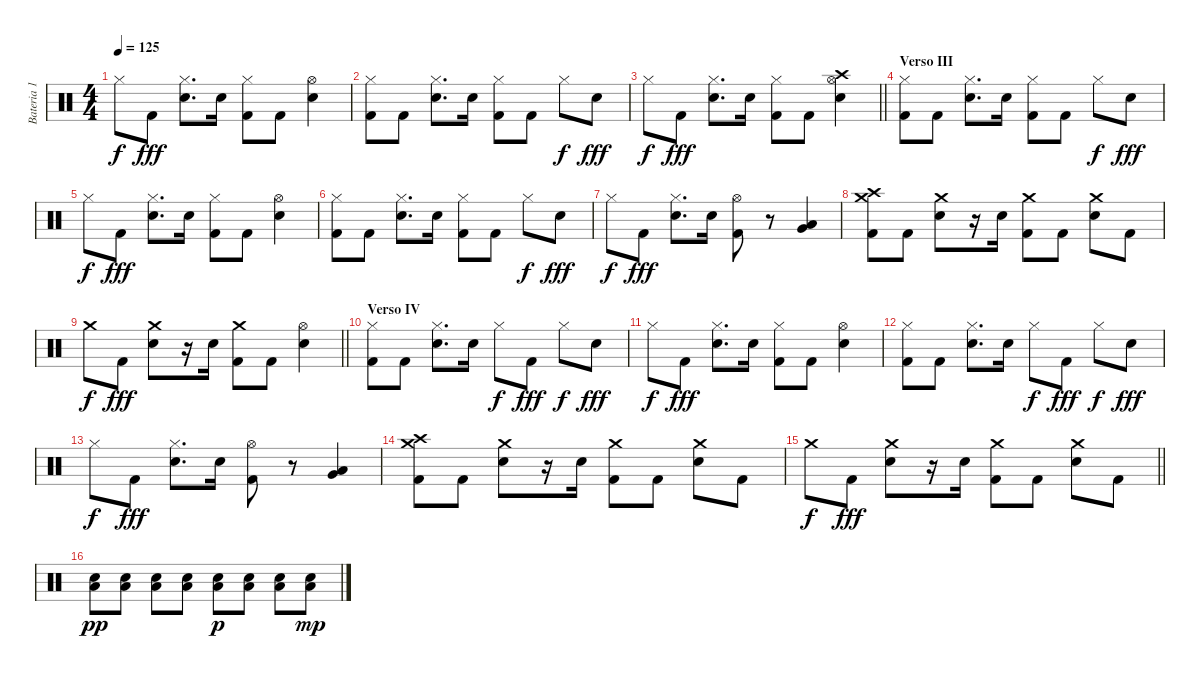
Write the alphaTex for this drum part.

\track ("Bateria 1" "Bateria 1") {instrument percussion}
\staff {score}
\articulation defaults
\ts (4 4)
\tempo 125
\clef neutral
\ks c "Hi-Hat (closed)".8{dy f} "Kick (hit) 2".8{dy fff}
("Hi-Hat (closed)" "Electric Snare (hit)").8{d} "Electric Snare (hit)".16 ("Hi-Hat (closed)" "Kick (hit) 2").8 "Kick (hit) 2".8 ("Hi-Hat (open)" "Electric Snare (hit)").4 |
("Hi-Hat (closed)" "Kick (hit) 2").8 "Kick (hit) 2".8 ("Hi-Hat (closed)" "Electric Snare (hit)").8{d} "Electric Snare (hit)".16 ("Hi-Hat (closed)" "Kick (hit) 2").8 "Kick (hit) 2".8 "Hi-Hat (closed)".8{dy f} "Electric Snare (hit)".8{dy fff} |
\barLineRight lightlight "Hi-Hat (closed)".8{dy f} "Kick (hit) 2".8{dy fff}
("Hi-Hat (closed)" "Electric Snare (hit)").8{d} "Electric Snare (hit)".16 ("Hi-Hat (closed)" "Kick (hit) 2").8 "Kick (hit) 2".8 ("Crash high (hit)" "Hi-Hat (open)" "Electric Snare (hit)").4 |
\section ("" "Verso III")
("Hi-Hat (closed)" "Kick (hit) 2").8 "Kick (hit) 2".8 ("Hi-Hat (closed)" "Electric Snare (hit)").8{d} "Electric Snare (hit)".16 ("Hi-Hat (closed)" "Kick (hit) 2").8 "Kick (hit) 2".8 "Hi-Hat (closed)".8{dy f} "Electric Snare (hit)".8{dy fff} |
"Hi-Hat (closed)".8{dy f} "Kick (hit) 2".8{dy fff} ("Hi-Hat (closed)" "Electric Snare (hit)").8{d} "Electric Snare (hit)".16 ("Hi-Hat (closed)" "Kick (hit) 2").8 "Kick (hit) 2".8 ("Hi-Hat (open)" "Electric Snare (hit)").4 |
("Hi-Hat (closed)" "Kick (hit) 2").8 "Kick (hit) 2".8 ("Hi-Hat (closed)" "Electric Snare (hit)").8{d} "Electric Snare (hit)".16 ("Hi-Hat (closed)" "Kick (hit) 2").8 "Kick (hit) 2".8 "Hi-Hat (closed)".8{dy f} "Electric Snare (hit)".8{dy fff} |
"Hi-Hat (closed)".8{dy f} "Kick (hit) 2".8{dy fff} ("Hi-Hat (closed)" "Electric Snare (hit)").8{d} "Electric Snare (hit)".16 ("Hi-Hat (open)" "Kick (hit) 2").8 r.8 ("Very Low Tom (hit)" "Low Floor Tom (hit)").4 |
("Crash high (hit)" "Crash medium (hit)" "Kick (hit) 2").8 "Kick (hit) 2".8 ("Crash medium (hit)" "Electric Snare (hit)").8 r.16 "Electric Snare (hit)".16 ("Crash medium (hit)" "Kick (hit) 2").8 "Kick (hit) 2".8 ("Crash medium (hit)" "Electric Snare (hit)").8 "Kick (hit) 2".8 |
\barLineRight lightlight "Crash medium (hit)".8{dy f} "Kick (hit) 2".8{dy fff}
("Crash medium (hit)" "Electric Snare (hit)").8 r.16 "Electric Snare (hit)".16 ("Crash medium (hit)" "Kick (hit) 2").8 "Kick (hit) 2".8 ("Hi-Hat (open)" "Electric Snare (hit)").4 |
\section ("" "Verso IV")
("Hi-Hat (closed)" "Kick (hit) 2").8 "Kick (hit) 2".8 ("Hi-Hat (closed)" "Electric Snare (hit)").8{d} "Electric Snare (hit)".16 "Hi-Hat (closed)".8{dy f} "Kick (hit) 2".8{dy fff} "Hi-Hat (closed)".8{dy f} "Electric Snare (hit)".8{dy fff} |
"Hi-Hat (closed)".8{dy f} "Kick (hit) 2".8{dy fff} ("Hi-Hat (closed)" "Electric Snare (hit)").8{d} "Electric Snare (hit)".16 ("Hi-Hat (closed)" "Kick (hit) 2").8 "Kick (hit) 2".8 ("Hi-Hat (open)" "Electric Snare (hit)").4 |
("Hi-Hat (closed)" "Kick (hit) 2").8 "Kick (hit) 2".8 ("Hi-Hat (closed)" "Electric Snare (hit)").8{d} "Electric Snare (hit)".16 "Hi-Hat (closed)".8{dy f} "Kick (hit) 2".8{dy fff} "Hi-Hat (closed)".8{dy f} "Electric Snare (hit)".8{dy fff} |
"Hi-Hat (closed)".8{dy f} "Kick (hit) 2".8{dy fff} ("Hi-Hat (closed)" "Electric Snare (hit)").8{d} "Electric Snare (hit)".16 ("Hi-Hat (open)" "Kick (hit) 2").8 r.8 ("Very Low Tom (hit)" "Low Floor Tom (hit)").4 |
("Crash high (hit)" "Crash medium (hit)" "Kick (hit) 2").8 "Kick (hit) 2".8 ("Crash medium (hit)" "Electric Snare (hit)").8 r.16 "Electric Snare (hit)".16 ("Crash medium (hit)" "Kick (hit) 2").8 "Kick (hit) 2".8 ("Crash medium (hit)" "Electric Snare (hit)").8 "Kick (hit) 2".8 |
\barLineRight lightlight "Crash medium (hit)".8{dy f} "Kick (hit) 2".8{dy fff}
("Crash medium (hit)" "Electric Snare (hit)").8 r.16 "Electric Snare (hit)".16 ("Crash medium (hit)" "Kick (hit) 2").8 "Kick (hit) 2".8 ("Crash medium (hit)" "Electric Snare (hit)").8 "Kick (hit) 2".8 |
("Low Floor Tom (hit)" "Electric Snare (hit)").8{dy pp} ("Low Floor Tom (hit)" "Electric Snare (hit)").8 ("Low Floor Tom (hit)" "Electric Snare (hit)").8 ("Low Floor Tom (hit)" "Electric Snare (hit)").8 ("Low Floor Tom (hit)" "Electric Snare (hit)").8{dy p} ("Low Floor Tom (hit)" "Electric Snare (hit)").8 ("Low Floor Tom (hit)" "Electric Snare (hit)").8 ("Low Floor Tom (hit)" "Electric Snare (hit)").8{dy mp}
